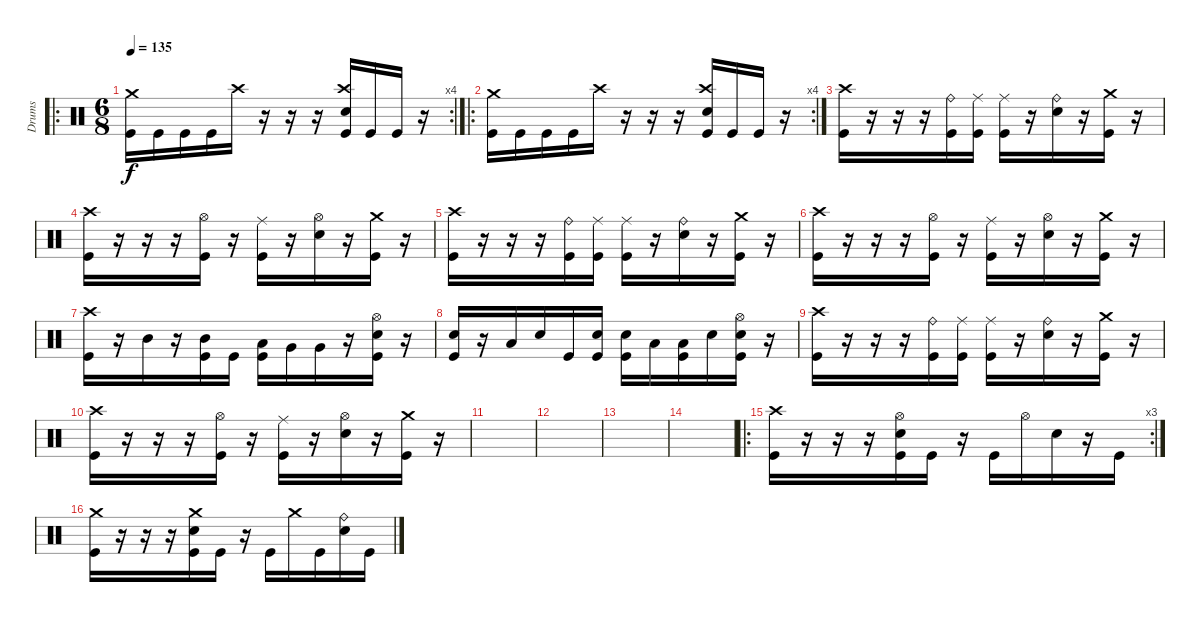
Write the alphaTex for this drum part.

\track ("Drums" "Drums") {instrument percussion}
\staff {score}
\articulation defaults
\ro
\rc 4
\ts (6 8)
\tempo 135
\clef neutral
\ks c
("Crash medium (hit)" "Kick (hit)").16{dy f} "Kick (hit)".16 "Kick (hit)".16 "Kick (hit)".16 "Crash high (hit)".16 r.16 r.16 r.16 ("Crash high (hit)" "Snare (hit) 2" "Kick (hit)").16 "Kick (hit)".16 "Kick (hit)".16 r.16 |
\ro
\rc 4
("Crash medium (hit)" "Kick (hit)").16 "Kick (hit)".16 "Kick (hit)".16 "Kick (hit)".16 "Crash high (hit)".16 r.16 r.16 r.16 ("Crash high (hit)" "Snare (hit) 2" "Kick (hit)").16 "Kick (hit)".16 "Kick (hit)".16 r.16 |
("Crash high (hit)" "Kick (hit)").16 r.16 r.16 r.16 ("Ride (bell)" "Kick (hit)").16 ("Ride (middle)" "Kick (hit)").16 ("Ride (middle)" "Kick (hit)").16 r.16 ("Ride (bell)" "Snare (hit) 2").16 r.16 ("Crash medium (hit)" "Kick (hit)").16 r.16 |
("Crash high (hit)" "Kick (hit)").16 r.16 r.16 r.16 ("Hi-Hat (open)" "Kick (hit)").16 r.16 ("Ride (middle)" "Kick (hit)").16 r.16 ("Hi-Hat (open)" "Snare (hit) 2").16 r.16 ("Crash medium (hit)" "Kick (hit)").16 r.16 |
("Crash high (hit)" "Kick (hit)").16 r.16 r.16 r.16 ("Ride (bell)" "Kick (hit)").16 ("Ride (middle)" "Kick (hit)").16 ("Ride (middle)" "Kick (hit)").16 r.16 ("Ride (bell)" "Snare (hit) 2").16 r.16 ("Crash medium (hit)" "Kick (hit)").16 r.16 |
("Crash high (hit)" "Kick (hit)").16 r.16 r.16 r.16 ("Hi-Hat (open)" "Kick (hit)").16 r.16 ("Ride (middle)" "Kick (hit)").16 r.16 ("Hi-Hat (open)" "Snare (hit) 2").16 r.16 ("Crash medium (hit)" "Kick (hit)").16 r.16 |
("Crash high (hit)" "Kick (hit)").16 r.16 "Mid Tom (hit)".16 r.16 ("Mid Tom (hit)" "Kick (hit)").16 "Kick (hit)".16 ("Low Tom (hit)" "Kick (hit)").16 "Very Low Tom (hit)".16 "Very Low Tom (hit)".16 r.16 ("Hi-Hat (open)" "Snare (hit) 2" "Kick (hit)").16 r.16 |
("Snare (hit) 2" "Kick (hit)").16 r.16 "Low Tom (hit)".16 "Snare (hit) 2".16 "Kick (hit)".16 ("Snare (hit) 2" "Kick (hit)").16 ("Snare (hit) 2" "Kick (hit)").16 "Low Tom (hit)".16 ("Low Tom (hit)" "Kick (hit)").16 "Snare (hit) 2".16 ("Hi-Hat (open)" "Snare (hit) 2" "Kick (hit)").16 r.16 |
("Crash high (hit)" "Kick (hit)").16 r.16 r.16 r.16 ("Ride (bell)" "Kick (hit)").16 ("Ride (middle)" "Kick (hit)").16 ("Ride (middle)" "Kick (hit)").16 r.16 ("Ride (bell)" "Snare (hit) 2").16 r.16 ("Crash medium (hit)" "Kick (hit)").16 r.16 |
("Crash high (hit)" "Kick (hit)").16 r.16 r.16 r.16 ("Hi-Hat (open)" "Kick (hit)").16 r.16 ("Ride (middle)" "Kick (hit)").16 r.16 ("Hi-Hat (open)" "Snare (hit) 2").16 r.16 ("Crash medium (hit)" "Kick (hit)").16 r.16 |
|
|
|
|
\ro
\rc 3
("Crash high (hit)" "Kick (hit)").16 r.16 r.16 r.16 ("Hi-Hat (open)" "Snare (hit) 2" "Kick (hit)").16 "Kick (hit)".16 r.16 "Kick (hit)".16 "Hi-Hat (open)".16 "Snare (hit) 2".16 r.16 "Kick (hit)".16 |
("Crash medium (hit)" "Kick (hit)").16 r.16 r.16 r.16 ("Crash medium (hit)" "Snare (hit) 2" "Kick (hit)").16 "Kick (hit)".16 r.16 "Kick (hit)".16 "Crash medium (hit)".16 "Kick (hit)".16 ("Ride (bell)" "Snare (hit) 2").16 "Kick (hit)".16
